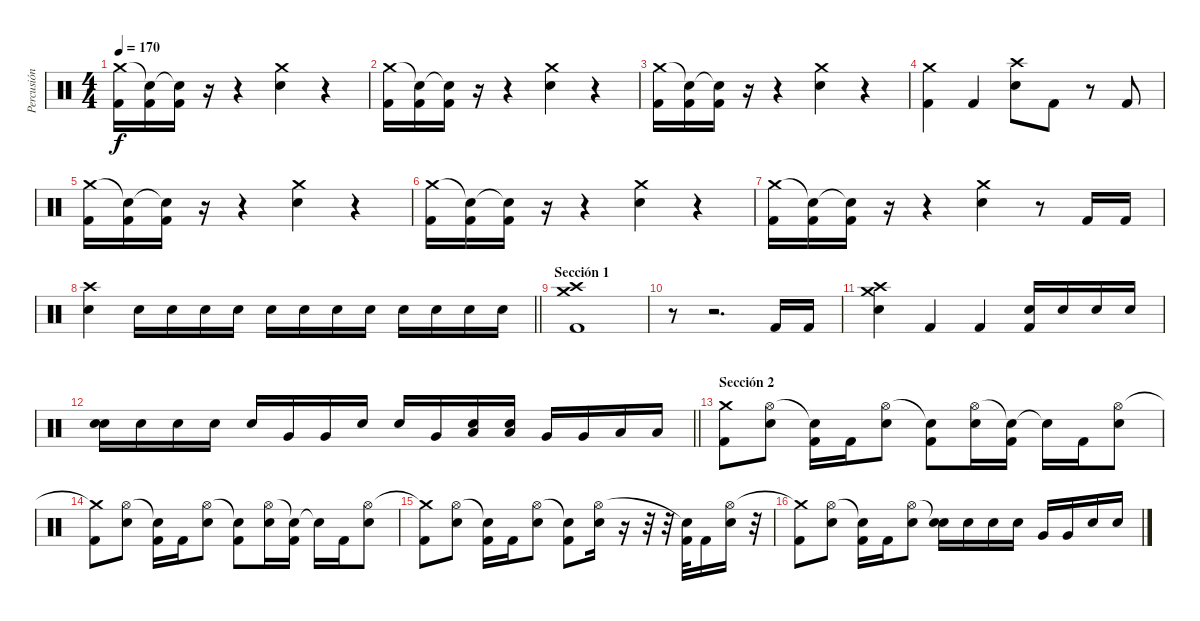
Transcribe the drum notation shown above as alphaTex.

\track ("Percusión" "Percusión") {instrument percussion}
\staff {score}
\articulation defaults
\ts (4 4)
\tempo 170
\clef neutral
\ks c
("Crash medium (hit)" "Kick (hit) 2").16{dy f} ("Snare (hit)"{t} "Kick (hit) 2").16 ("Snare (hit)"{t} "Kick (hit) 2").16 r.16 r.4 ("Crash medium (hit)" "Electric Snare (hit)").4 r.4 |
("Crash medium (hit)" "Kick (hit) 2").16 ("Snare (hit)"{t} "Kick (hit) 2").16 ("Snare (hit)"{t} "Kick (hit) 2").16 r.16 r.4 ("Crash medium (hit)" "Electric Snare (hit)").4 r.4 |
("Crash medium (hit)" "Kick (hit) 2").16 ("Snare (hit)"{t} "Kick (hit) 2").16 ("Snare (hit)"{t} "Kick (hit) 2").16 r.16 r.4 ("Crash medium (hit)" "Electric Snare (hit)").4 r.4 |
("Crash medium (hit)" "Kick (hit) 2").4 "Kick (hit) 2".4 ("Crash high (hit)" "Electric Snare (hit)").8 "Kick (hit) 2".8 r.8 "Kick (hit) 2".8 |
("Crash medium (hit)" "Kick (hit) 2").16 ("Snare (hit)"{t} "Kick (hit) 2").16 ("Snare (hit)"{t} "Kick (hit) 2").16 r.16 r.4 ("Crash medium (hit)" "Electric Snare (hit)").4 r.4 |
("Crash medium (hit)" "Kick (hit) 2").16 ("Snare (hit)"{t} "Kick (hit) 2").16 ("Snare (hit)"{t} "Kick (hit) 2").16 r.16 r.4 ("Crash medium (hit)" "Electric Snare (hit)").4 r.4 |
("Crash medium (hit)" "Kick (hit) 2").16 ("Snare (hit)"{t} "Kick (hit) 2").16 ("Snare (hit)"{t} "Kick (hit) 2").16 r.16 r.4 ("Crash medium (hit)" "Electric Snare (hit)").4 r.8 "Kick (hit) 2".16 "Kick (hit) 2".16 |
\barLineRight lightlight
("Crash high (hit)" "Electric Snare (hit)").4 "Electric Snare (hit)".16 "Electric Snare (hit)".16 "Electric Snare (hit)".16 "Electric Snare (hit)".16 "Electric Snare (hit)".16 "Electric Snare (hit)".16 "Electric Snare (hit)".16 "Electric Snare (hit)".16 "Electric Snare (hit)".16 "Electric Snare (hit)".16 "Electric Snare (hit)".16 "Electric Snare (hit)".16 |
\section ("" "Sección 1")
("Crash medium (hit)" "Crash high (hit)" "Kick (hit) 2").1 |
r.8 r.2{d} "Kick (hit) 2".16 "Kick (hit) 2".16 |
("Crash medium (hit)" "Crash high (hit)" "Electric Snare (hit)").4 "Kick (hit) 2".4 "Kick (hit) 2".4 ("Electric Snare (hit)" "Kick (hit) 2").16 "Electric Snare (hit)".16 "Electric Snare (hit)".16 "Electric Snare (hit)".16 |
\barLineRight lightlight
("Electric Snare (hit)" "Electric Snare (hit)").16 "Electric Snare (hit)".16 "Electric Snare (hit)".16 "Electric Snare (hit)".16 "Electric Snare (hit)".16 "Very Low Tom (hit)".16 "Very Low Tom (hit)".16 "Electric Snare (hit)".16 "Electric Snare (hit)".16 "Very Low Tom (hit)".16 ("Low Tom (hit)" "Electric Snare (hit)").16 ("Low Tom (hit)" "Electric Snare (hit)").16 "Very Low Tom (hit)".16 "Very Low Tom (hit)".16 "Low Floor Tom (hit)".16 "Low Floor Tom (hit)".16 |
\section ("" "Sección 2")
("Crash medium (hit)" "Kick (hit) 2").8 ("Hi-Hat (open)" "Electric Snare (hit)").8 ("Snare (hit)"{t} "Kick (hit) 2").16 "Kick (hit) 2".16 ("Hi-Hat (open)" "Electric Snare (hit)").8 ("Snare (hit)"{t} "Kick (hit) 2").8 ("Hi-Hat (open)" "Electric Snare (hit)").16 ("Snare (hit)"{t} "Kick (hit) 2").16 "Snare (hit)"{t}.16 "Kick (hit) 2".16 ("Hi-Hat (open)" "Electric Snare (hit)").8 |
("Crash medium (hit)"{t} "Kick (hit) 2").8 ("Hi-Hat (open)" "Electric Snare (hit)").8 ("Snare (hit)"{t} "Kick (hit) 2").16 "Kick (hit) 2".16 ("Hi-Hat (open)" "Electric Snare (hit)").8 ("Snare (hit)"{t} "Kick (hit) 2").8 ("Hi-Hat (open)" "Electric Snare (hit)").16 ("Snare (hit)"{t} "Kick (hit) 2").16 "Snare (hit)"{t}.16 "Kick (hit) 2".16 ("Hi-Hat (open)" "Electric Snare (hit)").8 |
("Crash medium (hit)"{t} "Kick (hit) 2").8 ("Hi-Hat (open)" "Electric Snare (hit)").8 ("Snare (hit)"{t} "Kick (hit) 2").16 "Kick (hit) 2".16 ("Hi-Hat (open)" "Electric Snare (hit)").8 ("Snare (hit)"{t} "Kick (hit) 2").8 ("Hi-Hat (open)" "Electric Snare (hit)").16 r.16 r.32 r.32 ("Snare (hit)"{t} "Kick (hit) 2").32 "Kick (hit) 2".16 ("Hi-Hat (open)" "Electric Snare (hit)").16 r.32 |
("Crash medium (hit)"{t} "Kick (hit) 2").8 ("Hi-Hat (open)" "Electric Snare (hit)").8 ("Snare (hit)"{t} "Kick (hit) 2").16 "Kick (hit) 2".16 ("Hi-Hat (open)" "Electric Snare (hit)").8 ("Snare (hit)"{t} "Electric Snare (hit)").16 "Electric Snare (hit)".16 "Electric Snare (hit)".16 "Electric Snare (hit)".16 "Very Low Tom (hit)".16 "Very Low Tom (hit)".16 "Electric Snare (hit)".16 "Electric Snare (hit)".16
